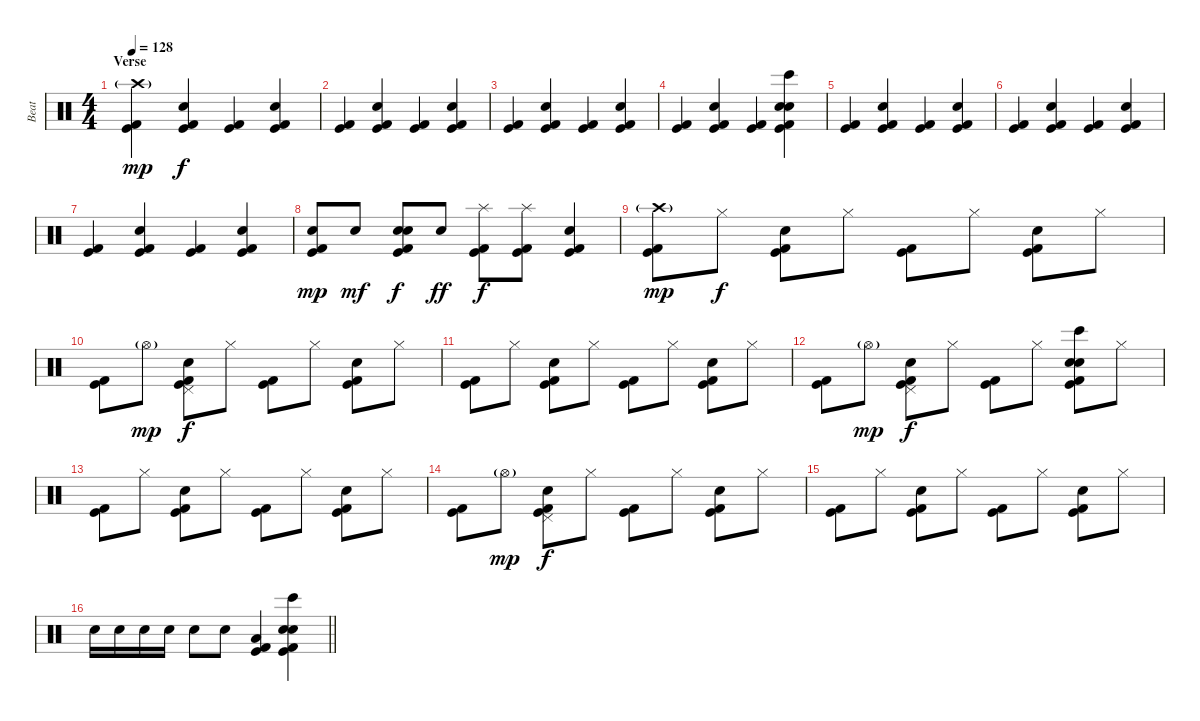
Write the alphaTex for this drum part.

\track ("Beat" "Beat") {instrument percussion}
\staff {score}
\articulation defaults
\ts (4 4)
\section ("" "Verse")
\tempo 128
\clef neutral
\ks c
("Crash high (hit)"{g} "Kick (hit) 2" "Kick (hit)").4{dy mp} ("Hand Clap (hit)" "Kick (hit) 2" "Kick (hit)").4{dy f} ("Kick (hit) 2" "Kick (hit)").4 ("Hand Clap (hit)" "Kick (hit) 2" "Kick (hit)").4 |
("Kick (hit) 2" "Kick (hit)").4 ("Hand Clap (hit)" "Kick (hit) 2" "Kick (hit)").4 ("Kick (hit) 2" "Kick (hit)").4 ("Hand Clap (hit)" "Kick (hit) 2" "Kick (hit)").4 |
("Kick (hit) 2" "Kick (hit)").4 ("Hand Clap (hit)" "Kick (hit) 2" "Kick (hit)").4 ("Kick (hit) 2" "Kick (hit)").4 ("Hand Clap (hit)" "Kick (hit) 2" "Kick (hit)").4 |
("Kick (hit) 2" "Kick (hit)").4 ("Hand Clap (hit)" "Kick (hit) 2" "Kick (hit)").4 ("Kick (hit) 2" "Kick (hit)").4 ("Hand Clap (hit)" "Snare (hit) 2" "Bongo High (hit)" "Kick (hit) 2" "Kick (hit)").4 |
("Kick (hit) 2" "Kick (hit)").4 ("Hand Clap (hit)" "Kick (hit) 2" "Kick (hit)").4 ("Kick (hit) 2" "Kick (hit)").4 ("Hand Clap (hit)" "Kick (hit) 2" "Kick (hit)").4 |
("Kick (hit) 2" "Kick (hit)").4 ("Hand Clap (hit)" "Kick (hit) 2" "Kick (hit)").4 ("Kick (hit) 2" "Kick (hit)").4 ("Hand Clap (hit)" "Kick (hit) 2" "Kick (hit)").4 |
("Kick (hit) 2" "Kick (hit)").4 ("Hand Clap (hit)" "Kick (hit) 2" "Kick (hit)").4 ("Kick (hit) 2" "Kick (hit)").4 ("Hand Clap (hit)" "Kick (hit) 2" "Kick (hit)").4 |
("Electric Snare (hit)" "Kick (hit) 2" "Kick (hit)").8{dy mp} "Electric Snare (hit)".8{dy mf} ("Hand Clap (hit)" "Electric Snare (hit)" "Kick (hit) 2" "Kick (hit)").8{dy f} "Electric Snare (hit)".8{dy ff} ("Splash (hit)" "Kick (hit) 2" "Kick (hit)").8{dy f} ("Splash (hit)" "Kick (hit) 2" "Kick (hit)").8 ("Snare (hit) 2" "Kick (hit) 2" "Kick (hit)").4 |
("Crash high (hit)"{g} "Kick (hit) 2" "Kick (hit)").8{dy mp} "Hi-Hat (closed)".8{dy f} ("Hand Clap (hit)" "Kick (hit) 2" "Kick (hit)").8 "Hi-Hat (closed)".8 ("Kick (hit) 2" "Kick (hit)").8 "Hi-Hat (closed)".8 ("Hand Clap (hit)" "Kick (hit) 2" "Kick (hit)").8 "Hi-Hat (closed)".8 |
("Kick (hit) 2" "Kick (hit)").8 "Hi-Hat (open)"{g}.8{dy mp} ("Pedal Hi-Hat (hit)" "Hand Clap (hit)" "Kick (hit) 2" "Kick (hit)").8{dy f} "Hi-Hat (closed)".8 ("Kick (hit) 2" "Kick (hit)").8 "Hi-Hat (closed)".8 ("Hand Clap (hit)" "Kick (hit) 2" "Kick (hit)").8 "Hi-Hat (closed)".8 |
("Kick (hit) 2" "Kick (hit)").8 "Hi-Hat (closed)".8 ("Hand Clap (hit)" "Kick (hit) 2" "Kick (hit)").8 "Hi-Hat (closed)".8 ("Kick (hit) 2" "Kick (hit)").8 "Hi-Hat (closed)".8 ("Hand Clap (hit)" "Kick (hit) 2" "Kick (hit)").8 "Hi-Hat (closed)".8 |
("Kick (hit) 2" "Kick (hit)").8 "Hi-Hat (open)"{g}.8{dy mp} ("Pedal Hi-Hat (hit)" "Hand Clap (hit)" "Kick (hit) 2" "Kick (hit)").8{dy f} "Hi-Hat (closed)".8 ("Kick (hit) 2" "Kick (hit)").8 "Hi-Hat (closed)".8 ("Hand Clap (hit)" "Snare (hit) 2" "Bongo High (hit)" "Kick (hit) 2" "Kick (hit)").8 "Hi-Hat (closed)".8 |
("Kick (hit) 2" "Kick (hit)").8 "Hi-Hat (closed)".8 ("Hand Clap (hit)" "Kick (hit) 2" "Kick (hit)").8 "Hi-Hat (closed)".8 ("Kick (hit) 2" "Kick (hit)").8 "Hi-Hat (closed)".8 ("Hand Clap (hit)" "Kick (hit) 2" "Kick (hit)").8 "Hi-Hat (closed)".8 |
("Kick (hit) 2" "Kick (hit)").8 "Hi-Hat (open)"{g}.8{dy mp} ("Pedal Hi-Hat (hit)" "Hand Clap (hit)" "Kick (hit) 2" "Kick (hit)").8{dy f} "Hi-Hat (closed)".8 ("Kick (hit) 2" "Kick (hit)").8 "Hi-Hat (closed)".8 ("Hand Clap (hit)" "Kick (hit) 2" "Kick (hit)").8 "Hi-Hat (closed)".8 |
("Kick (hit) 2" "Kick (hit)").8 "Hi-Hat (closed)".8 ("Hand Clap (hit)" "Kick (hit) 2" "Kick (hit)").8 "Hi-Hat (closed)".8 ("Kick (hit) 2" "Kick (hit)").8 "Hi-Hat (closed)".8 ("Hand Clap (hit)" "Kick (hit) 2" "Kick (hit)").8 "Hi-Hat (closed)".8 |
\barLineRight lightlight "Electric Snare (hit)".16 "Electric Snare (hit)".16 "Electric Snare (hit)".16 "Electric Snare (hit)".16 "Electric Snare (hit)".8 "Electric Snare (hit)".8
("Low Tom (hit)" "Kick (hit)" "Kick (hit) 2").4 ("Hand Clap (hit)" "Snare (hit) 2" "Bongo High (hit)" "Kick (hit) 2" "Kick (hit)").4
